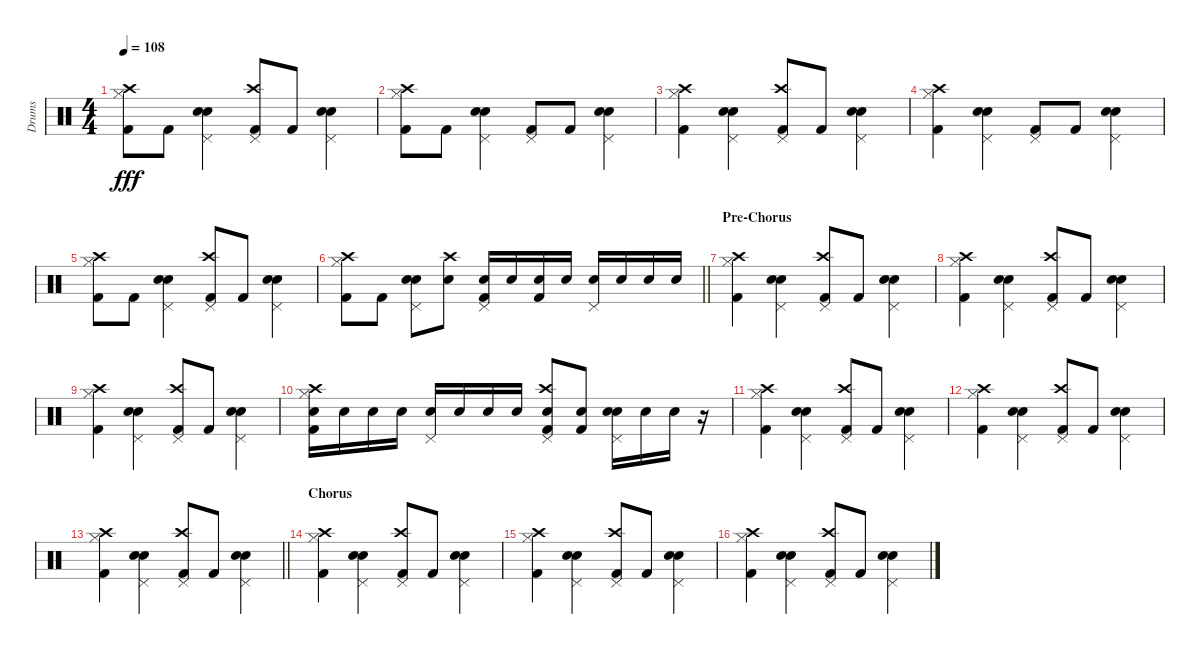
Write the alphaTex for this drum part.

\track ("Drums" "Drums") {instrument percussion}
\staff {score}
\articulation defaults
\ts (4 4)
\tempo 108
\clef neutral
\ks c
("Hi-Hat (closed)" "Kick (hit) 2" "Crash high (hit)").8{dy fff} "Kick (hit) 2".8 ("Electric Snare (hit)" "Pedal Hi-Hat (hit)" "Snare (hit) 2").4 ("Pedal Hi-Hat (hit)" "Kick (hit) 2" "Crash high (hit)").8 "Kick (hit) 2".8 ("Electric Snare (hit)" "Pedal Hi-Hat (hit)" "Snare (hit) 2").4 |
("Hi-Hat (closed)" "Kick (hit) 2" "Crash high (hit)").8 "Kick (hit) 2".8 ("Electric Snare (hit)" "Pedal Hi-Hat (hit)" "Snare (hit) 2").4 ("Pedal Hi-Hat (hit)" "Kick (hit) 2").8 "Kick (hit) 2".8 ("Electric Snare (hit)" "Pedal Hi-Hat (hit)" "Snare (hit) 2").4 |
("Hi-Hat (closed)" "Kick (hit) 2" "Crash high (hit)").4 ("Electric Snare (hit)" "Pedal Hi-Hat (hit)" "Snare (hit) 2").4 ("Pedal Hi-Hat (hit)" "Kick (hit) 2" "Crash high (hit)").8 "Kick (hit) 2".8 ("Electric Snare (hit)" "Pedal Hi-Hat (hit)" "Snare (hit) 2").4 |
("Hi-Hat (closed)" "Kick (hit) 2" "Crash high (hit)").4 ("Electric Snare (hit)" "Pedal Hi-Hat (hit)" "Snare (hit) 2").4 ("Pedal Hi-Hat (hit)" "Kick (hit) 2").8 "Kick (hit) 2".8 ("Electric Snare (hit)" "Pedal Hi-Hat (hit)" "Snare (hit) 2").4 |
("Hi-Hat (closed)" "Kick (hit) 2" "Crash high (hit)").8 "Kick (hit) 2".8 ("Electric Snare (hit)" "Pedal Hi-Hat (hit)" "Snare (hit) 2").4 ("Pedal Hi-Hat (hit)" "Kick (hit) 2" "Crash high (hit)").8 "Kick (hit) 2".8 ("Electric Snare (hit)" "Pedal Hi-Hat (hit)" "Snare (hit) 2").4 |
\barLineRight lightlight
("Hi-Hat (closed)" "Kick (hit) 2" "Crash high (hit)").8 "Kick (hit) 2".8 ("Electric Snare (hit)" "Pedal Hi-Hat (hit)" "Snare (hit) 2").8 ("Crash high (hit)" "Snare (hit) 2").8 ("Pedal Hi-Hat (hit)" "Kick (hit) 2" "Snare (hit) 2").16 "Snare (hit) 2".16 ("Kick (hit) 2" "Snare (hit) 2").16 "Snare (hit) 2".16 ("Pedal Hi-Hat (hit)" "Electric Snare (hit)").16 "Electric Snare (hit)".16 "Snare (hit) 2".16 "Snare (hit) 2".16 |
\section ("" "Pre-Chorus")
("Hi-Hat (closed)" "Kick (hit) 2" "Crash high (hit)").4 ("Electric Snare (hit)" "Pedal Hi-Hat (hit)" "Snare (hit) 2").4 ("Pedal Hi-Hat (hit)" "Kick (hit) 2" "Crash high (hit)").8 "Kick (hit) 2".8 ("Electric Snare (hit)" "Pedal Hi-Hat (hit)" "Snare (hit) 2").4 |
("Hi-Hat (closed)" "Kick (hit) 2" "Crash high (hit)").4 ("Electric Snare (hit)" "Pedal Hi-Hat (hit)" "Snare (hit) 2").4 ("Pedal Hi-Hat (hit)" "Kick (hit) 2" "Crash high (hit)").8 "Kick (hit) 2".8 ("Electric Snare (hit)" "Pedal Hi-Hat (hit)" "Snare (hit) 2").4 |
("Hi-Hat (closed)" "Kick (hit) 2" "Crash high (hit)").4 ("Electric Snare (hit)" "Pedal Hi-Hat (hit)" "Snare (hit) 2").4 ("Pedal Hi-Hat (hit)" "Kick (hit) 2" "Crash high (hit)").8 "Kick (hit) 2".8 ("Electric Snare (hit)" "Pedal Hi-Hat (hit)" "Snare (hit) 2").4 |
("Hi-Hat (closed)" "Kick (hit) 2" "Crash high (hit)" "Electric Snare (hit)").16 "Electric Snare (hit)".16 "Electric Snare (hit)".16 "Electric Snare (hit)".16 ("Pedal Hi-Hat (hit)" "Snare (hit) 2").16 "Snare (hit) 2".16 "Snare (hit) 2".16 "Snare (hit) 2".16 ("Pedal Hi-Hat (hit)" "Kick (hit) 2" "Crash high (hit)" "Snare (hit) 2").8 ("Kick (hit) 2" "Snare (hit) 2").8 ("Electric Snare (hit)" "Pedal Hi-Hat (hit)" "Snare (hit) 2").16 "Snare (hit) 2".16 "Snare (hit) 2".16 r.16 |
("Hi-Hat (closed)" "Kick (hit) 2" "Crash high (hit)").4 ("Electric Snare (hit)" "Pedal Hi-Hat (hit)" "Snare (hit) 2").4 ("Pedal Hi-Hat (hit)" "Kick (hit) 2" "Crash high (hit)").8 "Kick (hit) 2".8 ("Electric Snare (hit)" "Pedal Hi-Hat (hit)" "Snare (hit) 2").4 |
("Hi-Hat (closed)" "Kick (hit) 2" "Crash high (hit)").4 ("Electric Snare (hit)" "Pedal Hi-Hat (hit)" "Snare (hit) 2").4 ("Pedal Hi-Hat (hit)" "Kick (hit) 2" "Crash high (hit)").8 "Kick (hit) 2".8 ("Electric Snare (hit)" "Pedal Hi-Hat (hit)" "Snare (hit) 2").4 |
\barLineRight lightlight
("Hi-Hat (closed)" "Kick (hit) 2" "Crash high (hit)").4 ("Electric Snare (hit)" "Pedal Hi-Hat (hit)" "Snare (hit) 2").4 ("Pedal Hi-Hat (hit)" "Kick (hit) 2" "Crash high (hit)").8 "Kick (hit) 2".8 ("Electric Snare (hit)" "Pedal Hi-Hat (hit)" "Snare (hit) 2").4 |
\section ("" "Chorus")
("Hi-Hat (closed)" "Kick (hit) 2" "Crash high (hit)").4 ("Electric Snare (hit)" "Pedal Hi-Hat (hit)" "Snare (hit) 2").4 ("Pedal Hi-Hat (hit)" "Kick (hit) 2" "Crash high (hit)").8 "Kick (hit) 2".8 ("Electric Snare (hit)" "Pedal Hi-Hat (hit)" "Snare (hit) 2").4 |
("Hi-Hat (closed)" "Kick (hit) 2" "Crash high (hit)").4 ("Electric Snare (hit)" "Pedal Hi-Hat (hit)" "Snare (hit) 2").4 ("Pedal Hi-Hat (hit)" "Kick (hit) 2" "Crash high (hit)").8 "Kick (hit) 2".8 ("Electric Snare (hit)" "Pedal Hi-Hat (hit)" "Snare (hit) 2").4 |
("Hi-Hat (closed)" "Kick (hit) 2" "Crash high (hit)").4 ("Electric Snare (hit)" "Pedal Hi-Hat (hit)" "Snare (hit) 2").4 ("Pedal Hi-Hat (hit)" "Kick (hit) 2" "Crash high (hit)").8 "Kick (hit) 2".8 ("Electric Snare (hit)" "Pedal Hi-Hat (hit)" "Snare (hit) 2").4
